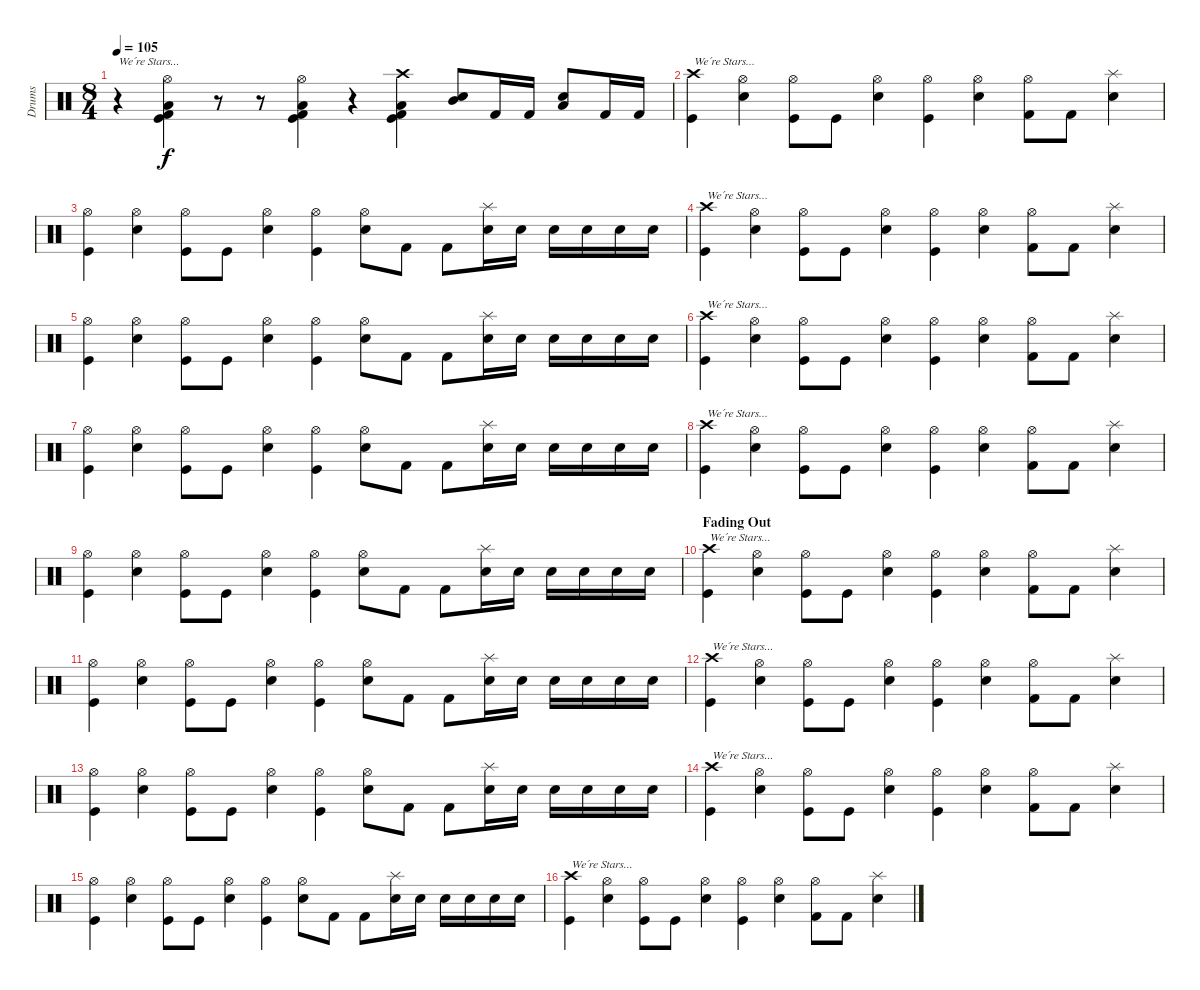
\track ("Drums" "Drums") {instrument percussion}
\staff {score}
\articulation defaults
\ts (8 4)
\tempo 105
\clef neutral
\ks c
r.4{txt "We´re Stars..." dy f} ("Hi-Hat (open)" "Low Floor Tom (hit)" "Kick (hit) 2" "Kick (hit)").4 r.8 r.8 ("Hi-Hat (open)" "Low Floor Tom (hit)" "Kick (hit) 2" "Kick (hit)").4 r.4 ("Crash high (hit)" "Low Floor Tom (hit)" "Kick (hit) 2" "Kick (hit)").4 ("Mid Tom (hit)" "Snare (hit) 2").8 "Kick (hit) 2".16 "Kick (hit) 2".16 ("Low Tom (hit)" "Snare (hit) 2").8 "Kick (hit) 2".16 "Kick (hit) 2".16 |
("Crash high (hit)" "Kick (hit)").4{txt "We´re Stars..."} ("Hi-Hat (open)" "Snare (hit) 2").4 ("Hi-Hat (open)" "Kick (hit)").8 "Kick (hit)".8 ("Hi-Hat (open)" "Snare (hit) 2").4 ("Hi-Hat (open)" "Kick (hit)").4 ("Hi-Hat (open)" "Snare (hit) 2").4 ("Hi-Hat (open)" "Kick (hit) 2").8 "Kick (hit) 2".8 ("Splash (hit)" "Snare (hit) 2").4 |
("Hi-Hat (open)" "Kick (hit)").4 ("Hi-Hat (open)" "Snare (hit) 2").4 ("Hi-Hat (open)" "Kick (hit)").8 "Kick (hit)".8 ("Hi-Hat (open)" "Snare (hit) 2").4 ("Hi-Hat (open)" "Kick (hit)").4 ("Hi-Hat (open)" "Snare (hit) 2").8 "Kick (hit) 2".8 "Kick (hit) 2".8 ("Splash (hit)" "Snare (hit) 2").16 "Snare (hit) 2".16 "Snare (hit) 2".16 "Snare (hit) 2".16 "Snare (hit) 2".16 "Snare (hit) 2".16 |
("Crash high (hit)" "Kick (hit)").4{txt "We´re Stars..."} ("Hi-Hat (open)" "Snare (hit) 2").4 ("Hi-Hat (open)" "Kick (hit)").8 "Kick (hit)".8 ("Hi-Hat (open)" "Snare (hit) 2").4 ("Hi-Hat (open)" "Kick (hit)").4 ("Hi-Hat (open)" "Snare (hit) 2").4 ("Hi-Hat (open)" "Kick (hit) 2").8 "Kick (hit) 2".8 ("Splash (hit)" "Snare (hit) 2").4 |
("Hi-Hat (open)" "Kick (hit)").4 ("Hi-Hat (open)" "Snare (hit) 2").4 ("Hi-Hat (open)" "Kick (hit)").8 "Kick (hit)".8 ("Hi-Hat (open)" "Snare (hit) 2").4 ("Hi-Hat (open)" "Kick (hit)").4 ("Hi-Hat (open)" "Snare (hit) 2").8 "Kick (hit) 2".8 "Kick (hit) 2".8 ("Splash (hit)" "Snare (hit) 2").16 "Snare (hit) 2".16 "Snare (hit) 2".16 "Snare (hit) 2".16 "Snare (hit) 2".16 "Snare (hit) 2".16 |
("Crash high (hit)" "Kick (hit)").4{txt "We´re Stars..."} ("Hi-Hat (open)" "Snare (hit) 2").4 ("Hi-Hat (open)" "Kick (hit)").8 "Kick (hit)".8 ("Hi-Hat (open)" "Snare (hit) 2").4 ("Hi-Hat (open)" "Kick (hit)").4 ("Hi-Hat (open)" "Snare (hit) 2").4 ("Hi-Hat (open)" "Kick (hit) 2").8 "Kick (hit) 2".8 ("Splash (hit)" "Snare (hit) 2").4 |
("Hi-Hat (open)" "Kick (hit)").4 ("Hi-Hat (open)" "Snare (hit) 2").4 ("Hi-Hat (open)" "Kick (hit)").8 "Kick (hit)".8 ("Hi-Hat (open)" "Snare (hit) 2").4 ("Hi-Hat (open)" "Kick (hit)").4 ("Hi-Hat (open)" "Snare (hit) 2").8 "Kick (hit) 2".8 "Kick (hit) 2".8 ("Splash (hit)" "Snare (hit) 2").16 "Snare (hit) 2".16 "Snare (hit) 2".16 "Snare (hit) 2".16 "Snare (hit) 2".16 "Snare (hit) 2".16 |
("Crash high (hit)" "Kick (hit)").4{txt "We´re Stars..."} ("Hi-Hat (open)" "Snare (hit) 2").4 ("Hi-Hat (open)" "Kick (hit)").8 "Kick (hit)".8 ("Hi-Hat (open)" "Snare (hit) 2").4 ("Hi-Hat (open)" "Kick (hit)").4 ("Hi-Hat (open)" "Snare (hit) 2").4 ("Hi-Hat (open)" "Kick (hit) 2").8 "Kick (hit) 2".8 ("Splash (hit)" "Snare (hit) 2").4 |
("Hi-Hat (open)" "Kick (hit)").4 ("Hi-Hat (open)" "Snare (hit) 2").4 ("Hi-Hat (open)" "Kick (hit)").8 "Kick (hit)".8 ("Hi-Hat (open)" "Snare (hit) 2").4 ("Hi-Hat (open)" "Kick (hit)").4 ("Hi-Hat (open)" "Snare (hit) 2").8 "Kick (hit) 2".8 "Kick (hit) 2".8 ("Splash (hit)" "Snare (hit) 2").16 "Snare (hit) 2".16 "Snare (hit) 2".16 "Snare (hit) 2".16 "Snare (hit) 2".16 "Snare (hit) 2".16 |
\section ("" "Fading Out")
("Crash high (hit)" "Kick (hit)").4{txt "We´re Stars..."} ("Hi-Hat (open)" "Snare (hit) 2").4 ("Hi-Hat (open)" "Kick (hit)").8 "Kick (hit)".8 ("Hi-Hat (open)" "Snare (hit) 2").4 ("Hi-Hat (open)" "Kick (hit)").4 ("Hi-Hat (open)" "Snare (hit) 2").4 ("Hi-Hat (open)" "Kick (hit) 2").8 "Kick (hit) 2".8 ("Splash (hit)" "Snare (hit) 2").4 |
("Hi-Hat (open)" "Kick (hit)").4 ("Hi-Hat (open)" "Snare (hit) 2").4 ("Hi-Hat (open)" "Kick (hit)").8 "Kick (hit)".8 ("Hi-Hat (open)" "Snare (hit) 2").4 ("Hi-Hat (open)" "Kick (hit)").4 ("Hi-Hat (open)" "Snare (hit) 2").8 "Kick (hit) 2".8 "Kick (hit) 2".8 ("Splash (hit)" "Snare (hit) 2").16 "Snare (hit) 2".16 "Snare (hit) 2".16 "Snare (hit) 2".16 "Snare (hit) 2".16 "Snare (hit) 2".16 |
("Crash high (hit)" "Kick (hit)").4{txt "We´re Stars..."} ("Hi-Hat (open)" "Snare (hit) 2").4 ("Hi-Hat (open)" "Kick (hit)").8 "Kick (hit)".8 ("Hi-Hat (open)" "Snare (hit) 2").4 ("Hi-Hat (open)" "Kick (hit)").4 ("Hi-Hat (open)" "Snare (hit) 2").4 ("Hi-Hat (open)" "Kick (hit) 2").8 "Kick (hit) 2".8 ("Splash (hit)" "Snare (hit) 2").4 |
("Hi-Hat (open)" "Kick (hit)").4 ("Hi-Hat (open)" "Snare (hit) 2").4 ("Hi-Hat (open)" "Kick (hit)").8 "Kick (hit)".8 ("Hi-Hat (open)" "Snare (hit) 2").4 ("Hi-Hat (open)" "Kick (hit)").4 ("Hi-Hat (open)" "Snare (hit) 2").8 "Kick (hit) 2".8 "Kick (hit) 2".8 ("Splash (hit)" "Snare (hit) 2").16 "Snare (hit) 2".16 "Snare (hit) 2".16 "Snare (hit) 2".16 "Snare (hit) 2".16 "Snare (hit) 2".16 |
("Crash high (hit)" "Kick (hit)").4{txt "We´re Stars..."} ("Hi-Hat (open)" "Snare (hit) 2").4 ("Hi-Hat (open)" "Kick (hit)").8 "Kick (hit)".8 ("Hi-Hat (open)" "Snare (hit) 2").4 ("Hi-Hat (open)" "Kick (hit)").4 ("Hi-Hat (open)" "Snare (hit) 2").4 ("Hi-Hat (open)" "Kick (hit) 2").8 "Kick (hit) 2".8 ("Splash (hit)" "Snare (hit) 2").4 |
("Hi-Hat (open)" "Kick (hit)").4 ("Hi-Hat (open)" "Snare (hit) 2").4 ("Hi-Hat (open)" "Kick (hit)").8 "Kick (hit)".8 ("Hi-Hat (open)" "Snare (hit) 2").4 ("Hi-Hat (open)" "Kick (hit)").4 ("Hi-Hat (open)" "Snare (hit) 2").8 "Kick (hit) 2".8 "Kick (hit) 2".8 ("Splash (hit)" "Snare (hit) 2").16 "Snare (hit) 2".16 "Snare (hit) 2".16 "Snare (hit) 2".16 "Snare (hit) 2".16 "Snare (hit) 2".16 |
("Crash high (hit)" "Kick (hit)").4{txt "We´re Stars..."} ("Hi-Hat (open)" "Snare (hit) 2").4 ("Hi-Hat (open)" "Kick (hit)").8 "Kick (hit)".8 ("Hi-Hat (open)" "Snare (hit) 2").4 ("Hi-Hat (open)" "Kick (hit)").4 ("Hi-Hat (open)" "Snare (hit) 2").4 ("Hi-Hat (open)" "Kick (hit) 2").8 "Kick (hit) 2".8 ("Splash (hit)" "Snare (hit) 2").4
